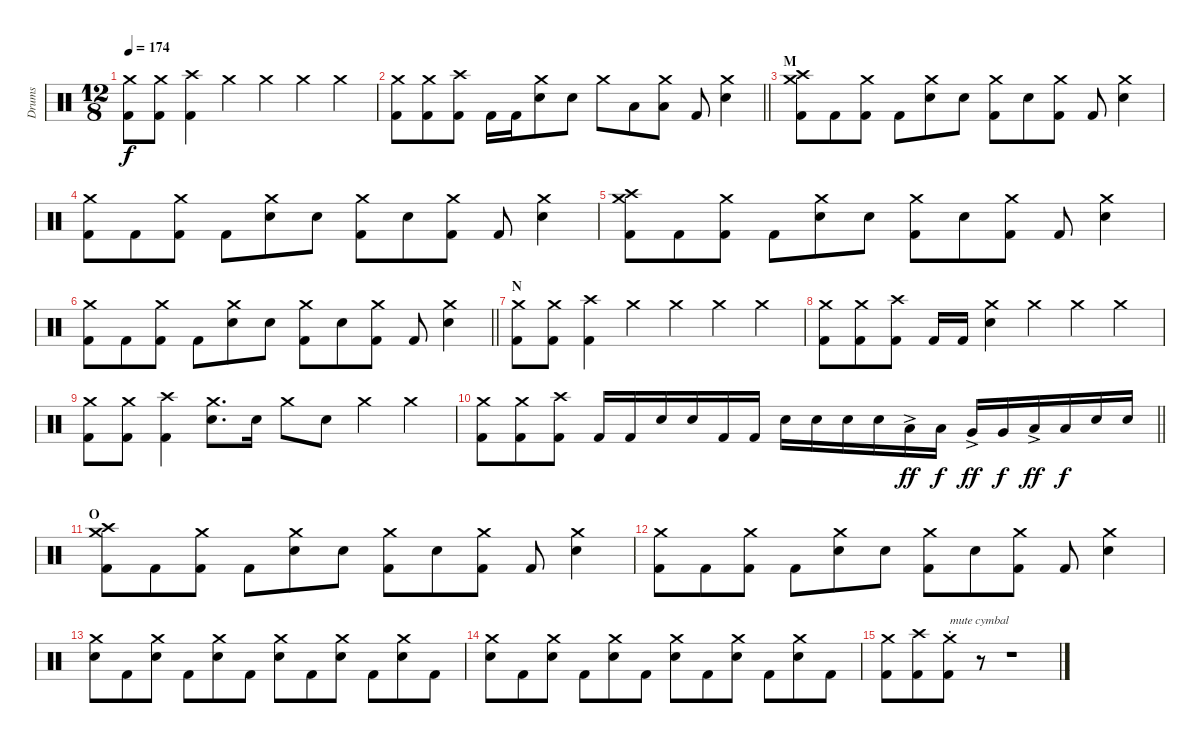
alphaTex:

\track ("Drums" "Drums") {instrument percussion}
\staff {score}
\articulation defaults
\ts (12 8)
\tempo 174
\clef neutral
\ks c
("Crash medium (hit)" "Kick (hit) 2").8{dy f} ("Crash medium (hit)" "Kick (hit) 2").8 ("Crash high (hit)" "Kick (hit) 2").4 "Crash medium (hit)".4 "Crash medium (hit)".4 "Crash medium (hit)".4 "Crash medium (hit)".4 |
\barLineRight lightlight
("Crash medium (hit)" "Kick (hit) 2").8 ("Crash medium (hit)" "Kick (hit) 2").8 ("Crash high (hit)" "Kick (hit) 2").8 "Kick (hit) 2".16 "Kick (hit) 2".16 ("Crash medium (hit)" "Electric Snare (hit)").8 "Electric Snare (hit)".8 "Crash medium (hit)".8 "Low Tom (hit)".8 ("Crash medium (hit)" "Low Tom (hit)").8 "Kick (hit) 2".8 ("Crash medium (hit)" "Electric Snare (hit)").4 |
\section ("" "M")
("Crash medium (hit)" "Crash high (hit)" "Kick (hit) 2").8 "Kick (hit) 2".8 ("Crash medium (hit)" "Kick (hit) 2").8 "Kick (hit) 2".8 ("Crash medium (hit)" "Electric Snare (hit)").8 "Electric Snare (hit)".8 ("Crash medium (hit)" "Kick (hit) 2").8 "Electric Snare (hit)".8 ("Crash medium (hit)" "Kick (hit) 2").8 "Kick (hit) 2".8 ("Crash medium (hit)" "Electric Snare (hit)").4 |
("Crash medium (hit)" "Kick (hit) 2").8 "Kick (hit) 2".8 ("Crash medium (hit)" "Kick (hit) 2").8 "Kick (hit) 2".8 ("Crash medium (hit)" "Electric Snare (hit)").8 "Electric Snare (hit)".8 ("Crash medium (hit)" "Kick (hit) 2").8 "Electric Snare (hit)".8 ("Crash medium (hit)" "Kick (hit) 2").8 "Kick (hit) 2".8 ("Crash medium (hit)" "Electric Snare (hit)").4 |
("Crash medium (hit)" "Crash high (hit)" "Kick (hit) 2").8 "Kick (hit) 2".8 ("Crash medium (hit)" "Kick (hit) 2").8 "Kick (hit) 2".8 ("Crash medium (hit)" "Electric Snare (hit)").8 "Electric Snare (hit)".8 ("Crash medium (hit)" "Kick (hit) 2").8 "Electric Snare (hit)".8 ("Crash medium (hit)" "Kick (hit) 2").8 "Kick (hit) 2".8 ("Crash medium (hit)" "Electric Snare (hit)").4 |
\barLineRight lightlight
("Crash medium (hit)" "Kick (hit) 2").8 "Kick (hit) 2".8 ("Crash medium (hit)" "Kick (hit) 2").8 "Kick (hit) 2".8 ("Crash medium (hit)" "Electric Snare (hit)").8 "Electric Snare (hit)".8 ("Crash medium (hit)" "Kick (hit) 2").8 "Electric Snare (hit)".8 ("Crash medium (hit)" "Kick (hit) 2").8 "Kick (hit) 2".8 ("Crash medium (hit)" "Electric Snare (hit)").4 |
\section ("" "N")
("Crash medium (hit)" "Kick (hit) 2").8 ("Crash medium (hit)" "Kick (hit) 2").8 ("Crash high (hit)" "Kick (hit) 2").4 "Crash medium (hit)".4 "Crash medium (hit)".4 "Crash medium (hit)".4 "Crash medium (hit)".4 |
("Crash medium (hit)" "Kick (hit) 2").8 ("Crash medium (hit)" "Kick (hit) 2").8 ("Crash high (hit)" "Kick (hit) 2").8 "Kick (hit) 2".16 "Kick (hit) 2".16 ("Crash medium (hit)" "Electric Snare (hit)").4 "Crash medium (hit)".4 "Crash medium (hit)".4 "Crash medium (hit)".4 |
("Crash medium (hit)" "Kick (hit) 2").8 ("Crash medium (hit)" "Kick (hit) 2").8 ("Crash high (hit)" "Kick (hit) 2").4 ("Crash medium (hit)" "Electric Snare (hit)").8{d} "Electric Snare (hit)".16 "Crash medium (hit)".8 "Electric Snare (hit)".8 "Crash medium (hit)".4 "Crash medium (hit)".4 |
\barLineRight lightlight
("Crash medium (hit)" "Kick (hit) 2").8 ("Crash medium (hit)" "Kick (hit) 2").8 ("Crash high (hit)" "Kick (hit) 2").8 "Kick (hit) 2".16 "Kick (hit) 2".16 "Electric Snare (hit)".16 "Electric Snare (hit)".16 "Kick (hit) 2".16 "Kick (hit) 2".16 "Electric Snare (hit)".16 "Electric Snare (hit)".16 "Electric Snare (hit)".16 "Electric Snare (hit)".16 "Low Tom (hit)"{ac}.16{dy ff} "Low Tom (hit)".16{dy f} "Very Low Tom (hit)"{ac}.16{dy ff} "Very Low Tom (hit)".16{dy f} "Low Floor Tom (hit)"{ac}.16{dy ff} "Low Floor Tom (hit)".16{dy f} "Electric Snare (hit)".16 "Electric Snare (hit)".16 |
\section ("" "O")
("Crash medium (hit)" "Crash high (hit)" "Kick (hit) 2").8 "Kick (hit) 2".8 ("Crash medium (hit)" "Kick (hit) 2").8 "Kick (hit) 2".8 ("Crash medium (hit)" "Electric Snare (hit)").8 "Electric Snare (hit)".8 ("Crash medium (hit)" "Kick (hit) 2").8 "Electric Snare (hit)".8 ("Crash medium (hit)" "Kick (hit) 2").8 "Kick (hit) 2".8 ("Crash medium (hit)" "Electric Snare (hit)").4 |
("Crash medium (hit)" "Kick (hit) 2").8 "Kick (hit) 2".8 ("Crash medium (hit)" "Kick (hit) 2").8 "Kick (hit) 2".8 ("Crash medium (hit)" "Electric Snare (hit)").8 "Electric Snare (hit)".8 ("Crash medium (hit)" "Kick (hit) 2").8 "Electric Snare (hit)".8 ("Crash medium (hit)" "Kick (hit) 2").8 "Kick (hit) 2".8 ("Crash medium (hit)" "Electric Snare (hit)").4 |
("Crash medium (hit)" "Electric Snare (hit)").8 "Kick (hit) 2".8 ("Crash medium (hit)" "Electric Snare (hit)").8 "Kick (hit) 2".8 ("Crash medium (hit)" "Electric Snare (hit)").8 "Kick (hit) 2".8 ("Crash medium (hit)" "Electric Snare (hit)").8 "Kick (hit) 2".8 ("Crash medium (hit)" "Electric Snare (hit)").8 "Kick (hit) 2".8 ("Crash medium (hit)" "Electric Snare (hit)").8 "Kick (hit) 2".8 |
("Crash medium (hit)" "Electric Snare (hit)").8 "Kick (hit) 2".8 ("Crash medium (hit)" "Electric Snare (hit)").8 "Kick (hit) 2".8 ("Crash medium (hit)" "Electric Snare (hit)").8 "Kick (hit) 2".8 ("Crash medium (hit)" "Electric Snare (hit)").8 "Kick (hit) 2".8 ("Crash medium (hit)" "Electric Snare (hit)").8 "Kick (hit) 2".8 ("Crash medium (hit)" "Electric Snare (hit)").8 "Kick (hit) 2".8 |
("Crash medium (hit)" "Kick (hit) 2").8 ("Crash high (hit)" "Kick (hit) 2").8 ("Crash medium (hit)"{st} "Kick (hit) 2").8{txt "mute cymbal"} r.8{volume 0} r.1
